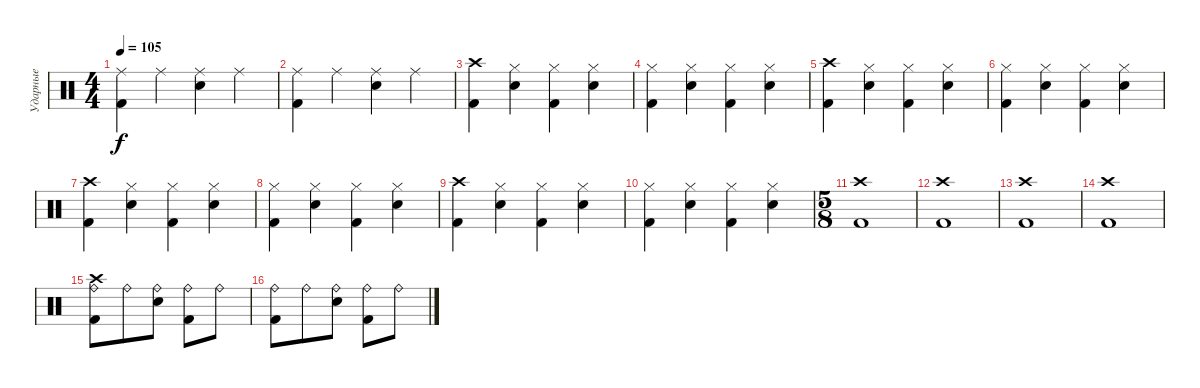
\track ("Ударные" "Ударные") {instrument percussion}
\staff {score}
\articulation defaults
\ts (4 4)
\tempo 105
\clef neutral
\ks c
("Ride (middle)" "Kick (hit) 2").4{dy f} "Ride (middle)".4 ("Ride (middle)" "Electric Snare (hit)").4 "Ride (middle)".4 |
("Ride (middle)" "Kick (hit) 2").4 "Ride (middle)".4 ("Ride (middle)" "Electric Snare (hit)").4 "Ride (middle)".4 |
("Kick (hit) 2" "Crash high (hit)").4 ("Electric Snare (hit)" "Hi-Hat (closed)").4 ("Hi-Hat (closed)" "Kick (hit) 2").4 ("Electric Snare (hit)" "Hi-Hat (closed)").4 |
("Kick (hit) 2" "Hi-Hat (closed)").4 ("Electric Snare (hit)" "Hi-Hat (closed)").4 ("Hi-Hat (closed)" "Kick (hit) 2").4 ("Electric Snare (hit)" "Hi-Hat (closed)").4 |
("Kick (hit) 2" "Crash high (hit)").4 ("Electric Snare (hit)" "Hi-Hat (closed)").4 ("Hi-Hat (closed)" "Kick (hit) 2").4 ("Electric Snare (hit)" "Hi-Hat (closed)").4 |
("Kick (hit) 2" "Hi-Hat (closed)").4 ("Electric Snare (hit)" "Hi-Hat (closed)").4 ("Hi-Hat (closed)" "Kick (hit) 2").4 ("Electric Snare (hit)" "Hi-Hat (closed)").4 |
("Kick (hit) 2" "Crash high (hit)").4 ("Electric Snare (hit)" "Hi-Hat (closed)").4 ("Hi-Hat (closed)" "Kick (hit) 2").4 ("Electric Snare (hit)" "Hi-Hat (closed)").4 |
("Kick (hit) 2" "Hi-Hat (closed)").4 ("Electric Snare (hit)" "Hi-Hat (closed)").4 ("Hi-Hat (closed)" "Kick (hit) 2").4 ("Electric Snare (hit)" "Hi-Hat (closed)").4 |
("Kick (hit) 2" "Crash high (hit)").4 ("Electric Snare (hit)" "Hi-Hat (closed)").4 ("Hi-Hat (closed)" "Kick (hit) 2").4 ("Electric Snare (hit)" "Hi-Hat (closed)").4 |
("Kick (hit) 2" "Hi-Hat (closed)").4 ("Electric Snare (hit)" "Hi-Hat (closed)").4 ("Hi-Hat (closed)" "Kick (hit) 2").4 ("Electric Snare (hit)" "Hi-Hat (closed)").4 |
\ts (5 8)
("Crash high (hit)" "Kick (hit) 2").1 |
("Crash high (hit)" "Kick (hit) 2").1 |
("Crash high (hit)" "Kick (hit) 2").1 |
("Kick (hit) 2" "Crash high (hit)").1 |
("Kick (hit) 2" "Ride (bell)" "Crash high (hit)").8 "Ride (bell)".8 ("Electric Snare (hit)" "Ride (bell)").8 ("Kick (hit) 2" "Ride (bell)").8 "Ride (bell)".8 |
("Kick (hit) 2" "Ride (bell)").8 "Ride (bell)".8 ("Electric Snare (hit)" "Ride (bell)").8 ("Kick (hit) 2" "Ride (bell)").8 "Ride (bell)".8
